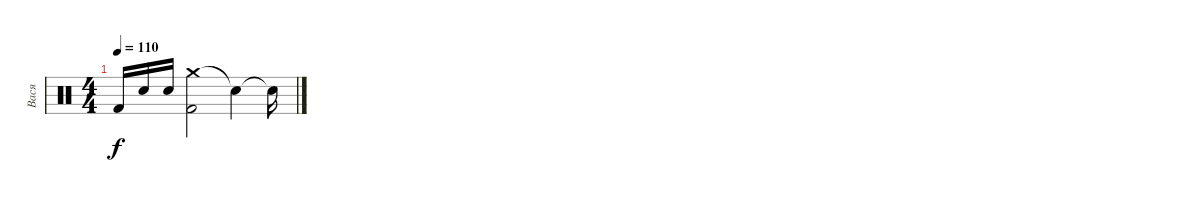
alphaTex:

\track ("Вася" "Вася") {instrument percussion}
\staff {score}
\articulation defaults
\ts (4 4)
\tempo 110
\clef neutral
\ks c "Kick (hit) 2".16{dy f} "Electric Snare (hit)".16 "Electric Snare (hit)".16
("Crash medium (hit)" "Kick (hit) 2").2 "Snare (hit)"{t}.4 "Snare (hit)"{t}.16
